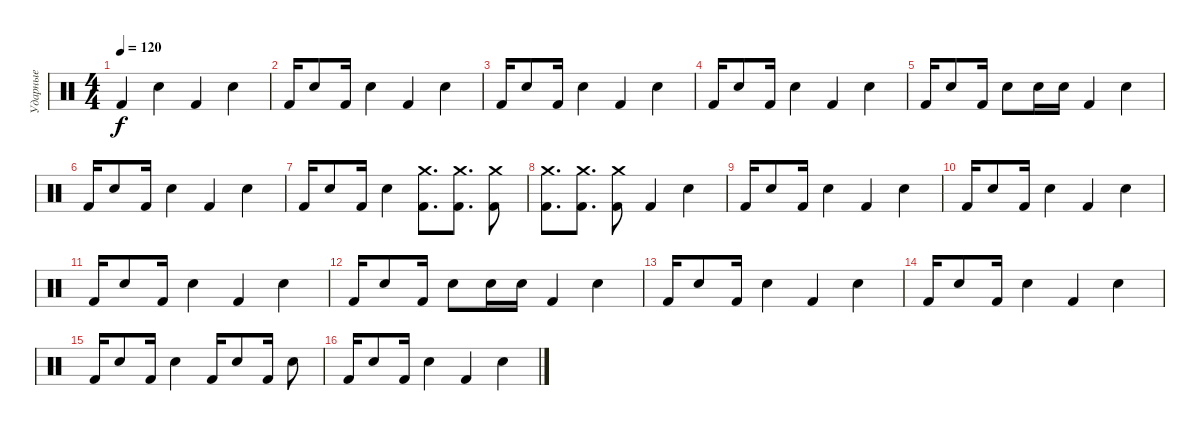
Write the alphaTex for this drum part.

\track ("Ударные" "Ударные") {instrument percussion}
\staff {score}
\articulation defaults
\ts (4 4)
\tempo 120
\clef neutral
\ks c "Kick (hit) 2".4{dy f} "Snare (hit) 2".4 "Kick (hit) 2".4 "Snare (hit) 2".4
|
"Kick (hit) 2".16 "Snare (hit) 2".8 "Kick (hit) 2".16 "Snare (hit) 2".4 "Kick (hit) 2".4 "Snare (hit) 2".4 |
"Kick (hit) 2".16 "Snare (hit) 2".8 "Kick (hit) 2".16 "Snare (hit) 2".4 "Kick (hit) 2".4 "Snare (hit) 2".4 |
"Kick (hit) 2".16 "Snare (hit) 2".8 "Kick (hit) 2".16 "Snare (hit) 2".4 "Kick (hit) 2".4 "Snare (hit) 2".4 |
"Kick (hit) 2".16 "Snare (hit) 2".8 "Kick (hit) 2".16 "Snare (hit) 2".8 "Snare (hit) 2".16 "Snare (hit) 2".16 "Kick (hit) 2".4 "Snare (hit) 2".4 |
"Kick (hit) 2".16 "Snare (hit) 2".8 "Kick (hit) 2".16 "Snare (hit) 2".4 "Kick (hit) 2".4 "Snare (hit) 2".4 |
"Kick (hit) 2".16 "Snare (hit) 2".8 "Kick (hit) 2".16 "Snare (hit) 2".4 ("Crash medium (hit)" "Kick (hit) 2").8{d} ("Crash medium (hit)" "Kick (hit) 2").8{d} ("Crash medium (hit)" "Kick (hit) 2").8 |
("Crash medium (hit)" "Kick (hit) 2").8{d} ("Crash medium (hit)" "Kick (hit) 2").8{d} ("Crash medium (hit)" "Kick (hit) 2").8 "Kick (hit) 2".4 "Snare (hit) 2".4 |
"Kick (hit) 2".16 "Snare (hit) 2".8 "Kick (hit) 2".16 "Snare (hit) 2".4 "Kick (hit) 2".4 "Snare (hit) 2".4 |
"Kick (hit) 2".16 "Snare (hit) 2".8 "Kick (hit) 2".16 "Snare (hit) 2".4 "Kick (hit) 2".4 "Snare (hit) 2".4 |
"Kick (hit) 2".16 "Snare (hit) 2".8 "Kick (hit) 2".16 "Snare (hit) 2".4 "Kick (hit) 2".4 "Snare (hit) 2".4 |
"Kick (hit) 2".16 "Snare (hit) 2".8 "Kick (hit) 2".16 "Snare (hit) 2".8 "Snare (hit) 2".16 "Snare (hit) 2".16 "Kick (hit) 2".4 "Snare (hit) 2".4 |
"Kick (hit) 2".16 "Snare (hit) 2".8 "Kick (hit) 2".16 "Snare (hit) 2".4 "Kick (hit) 2".4 "Snare (hit) 2".4 |
"Kick (hit) 2".16 "Snare (hit) 2".8 "Kick (hit) 2".16 "Snare (hit) 2".4 "Kick (hit) 2".4 "Snare (hit) 2".4 |
"Kick (hit) 2".16 "Snare (hit) 2".8 "Kick (hit) 2".16 "Snare (hit) 2".4 "Kick (hit) 2".16 "Snare (hit) 2".8 "Kick (hit) 2".16 "Snare (hit) 2".8 |
"Kick (hit) 2".16 "Snare (hit) 2".8 "Kick (hit) 2".16 "Snare (hit) 2".4 "Kick (hit) 2".4 "Snare (hit) 2".4
